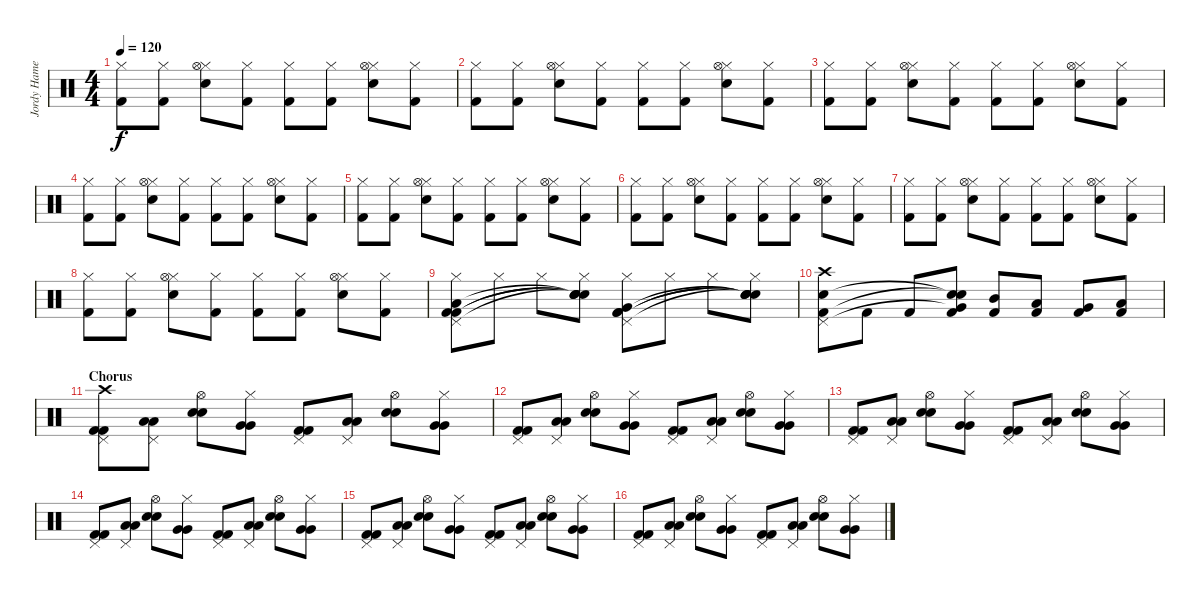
\track ("Jordy Hamer" "Jordy Hame") {instrument percussion}
\staff {score}
\articulation defaults
\ts (4 4)
\tempo 120
\clef neutral
\ks c
("Hi-Hat (closed)" "Kick (hit) 2").8{dy f} ("Hi-Hat (closed)" "Kick (hit) 2").8 ("Hi-Hat (closed)" "Electric Snare (hit)" "Hi-Hat (open)").8 ("Hi-Hat (closed)" "Kick (hit) 2").8 ("Hi-Hat (closed)" "Kick (hit) 2").8 ("Hi-Hat (closed)" "Kick (hit) 2").8 ("Hi-Hat (closed)" "Electric Snare (hit)" "Hi-Hat (open)").8 ("Hi-Hat (closed)" "Kick (hit) 2").8 |
("Hi-Hat (closed)" "Kick (hit) 2").8 ("Hi-Hat (closed)" "Kick (hit) 2").8 ("Hi-Hat (closed)" "Electric Snare (hit)" "Hi-Hat (open)").8 ("Hi-Hat (closed)" "Kick (hit) 2").8 ("Hi-Hat (closed)" "Kick (hit) 2").8 ("Hi-Hat (closed)" "Kick (hit) 2").8 ("Hi-Hat (closed)" "Electric Snare (hit)" "Hi-Hat (open)").8 ("Hi-Hat (closed)" "Kick (hit) 2").8 |
("Hi-Hat (closed)" "Kick (hit) 2").8 ("Hi-Hat (closed)" "Kick (hit) 2").8 ("Hi-Hat (closed)" "Electric Snare (hit)" "Hi-Hat (open)").8 ("Hi-Hat (closed)" "Kick (hit) 2").8 ("Hi-Hat (closed)" "Kick (hit) 2").8 ("Hi-Hat (closed)" "Kick (hit) 2").8 ("Hi-Hat (closed)" "Electric Snare (hit)" "Hi-Hat (open)").8 ("Hi-Hat (closed)" "Kick (hit) 2").8 |
("Hi-Hat (closed)" "Kick (hit) 2").8 ("Hi-Hat (closed)" "Kick (hit) 2").8 ("Hi-Hat (closed)" "Electric Snare (hit)" "Hi-Hat (open)").8 ("Hi-Hat (closed)" "Kick (hit) 2").8 ("Hi-Hat (closed)" "Kick (hit) 2").8 ("Hi-Hat (closed)" "Kick (hit) 2").8 ("Hi-Hat (closed)" "Electric Snare (hit)" "Hi-Hat (open)").8 ("Hi-Hat (closed)" "Kick (hit) 2").8 |
("Hi-Hat (closed)" "Kick (hit) 2").8 ("Hi-Hat (closed)" "Kick (hit) 2").8 ("Hi-Hat (closed)" "Electric Snare (hit)" "Hi-Hat (open)").8 ("Hi-Hat (closed)" "Kick (hit) 2").8 ("Hi-Hat (closed)" "Kick (hit) 2").8 ("Hi-Hat (closed)" "Kick (hit) 2").8 ("Hi-Hat (closed)" "Electric Snare (hit)" "Hi-Hat (open)").8 ("Hi-Hat (closed)" "Kick (hit) 2").8 |
("Hi-Hat (closed)" "Kick (hit) 2").8 ("Hi-Hat (closed)" "Kick (hit) 2").8 ("Hi-Hat (closed)" "Electric Snare (hit)" "Hi-Hat (open)").8 ("Hi-Hat (closed)" "Kick (hit) 2").8 ("Hi-Hat (closed)" "Kick (hit) 2").8 ("Hi-Hat (closed)" "Kick (hit) 2").8 ("Hi-Hat (closed)" "Electric Snare (hit)" "Hi-Hat (open)").8 ("Hi-Hat (closed)" "Kick (hit) 2").8 |
("Hi-Hat (closed)" "Kick (hit) 2").8 ("Hi-Hat (closed)" "Kick (hit) 2").8 ("Hi-Hat (closed)" "Electric Snare (hit)" "Hi-Hat (open)").8 ("Hi-Hat (closed)" "Kick (hit) 2").8 ("Hi-Hat (closed)" "Kick (hit) 2").8 ("Hi-Hat (closed)" "Kick (hit) 2").8 ("Hi-Hat (closed)" "Electric Snare (hit)" "Hi-Hat (open)").8 ("Hi-Hat (closed)" "Kick (hit) 2").8 |
("Hi-Hat (closed)" "Kick (hit) 2").8 ("Hi-Hat (closed)" "Kick (hit) 2").8 ("Hi-Hat (closed)" "Electric Snare (hit)" "Hi-Hat (open)").8 ("Hi-Hat (closed)" "Kick (hit) 2").8 ("Hi-Hat (closed)" "Kick (hit) 2").8 ("Hi-Hat (closed)" "Kick (hit) 2").8 ("Hi-Hat (closed)" "Electric Snare (hit)" "Hi-Hat (open)").8 ("Hi-Hat (closed)" "Kick (hit) 2").8 |
("Hi-Hat (closed)" "Pedal Hi-Hat (hit)" "Kick (hit) 2" "Kick (hit) 2" "Low Floor Tom (hit)").8 "Hi-Hat (closed)".8 "Hi-Hat (closed)".8 ("Hi-Hat (closed)" "Snare (hit)"{t} "Snare (hit)"{t} "Snare (hit)"{t} "Snare (hit)"{t}).8 ("Hi-Hat (closed)" "Pedal Hi-Hat (hit)" "Kick (hit) 2" "Kick (hit) 2" "Very Low Tom (hit)").8 "Hi-Hat (closed)".8 "Hi-Hat (closed)".8 ("Hi-Hat (closed)" "Snare (hit)"{t} "Snare (hit)"{t} "Snare (hit)"{t} "Snare (hit)"{t}).8 |
("Crash high (hit)" "Pedal Hi-Hat (hit)" "Electric Snare (hit)" "Kick (hit) 2").8 "Kick (hit) 2".8 "Kick (hit) 2".8 ("Kick (hit) 2" "Very Low Tom (hit)"{t} "Snare (hit)"{t} "Snare (hit)"{t}).8 ("Kick (hit) 2" "Mid Tom (hit)").8 ("Kick (hit) 2" "Low Tom (hit)").8 ("Kick (hit) 2" "Very Low Tom (hit)").8 ("Kick (hit) 2" "Low Floor Tom (hit)").8 |
\section ("" "Chorus")
("Crash high (hit)" "Pedal Hi-Hat (hit)" "Kick (hit) 2" "Kick (hit) 2").8 ("Pedal Hi-Hat (hit)" "Low Floor Tom (hit)" "Low Floor Tom (hit)").8 ("Hi-Hat (open)" "Electric Snare (hit)" "Electric Snare (hit)").8 ("Hi-Hat (closed)" "Very Low Tom (hit)" "Very Low Tom (hit)").8 ("Pedal Hi-Hat (hit)" "Kick (hit) 2" "Kick (hit) 2").8 ("Pedal Hi-Hat (hit)" "Low Floor Tom (hit)" "Low Floor Tom (hit)").8 ("Hi-Hat (open)" "Electric Snare (hit)" "Electric Snare (hit)").8 ("Hi-Hat (closed)" "Very Low Tom (hit)" "Very Low Tom (hit)").8 |
("Pedal Hi-Hat (hit)" "Kick (hit) 2" "Kick (hit) 2").8 ("Pedal Hi-Hat (hit)" "Low Floor Tom (hit)" "Low Floor Tom (hit)").8 ("Hi-Hat (open)" "Electric Snare (hit)" "Electric Snare (hit)").8 ("Hi-Hat (closed)" "Very Low Tom (hit)" "Very Low Tom (hit)").8 ("Pedal Hi-Hat (hit)" "Kick (hit) 2" "Kick (hit) 2").8 ("Pedal Hi-Hat (hit)" "Low Floor Tom (hit)" "Low Floor Tom (hit)").8 ("Hi-Hat (open)" "Electric Snare (hit)" "Electric Snare (hit)").8 ("Hi-Hat (closed)" "Very Low Tom (hit)" "Very Low Tom (hit)").8 |
("Pedal Hi-Hat (hit)" "Kick (hit) 2" "Kick (hit) 2").8 ("Pedal Hi-Hat (hit)" "Low Floor Tom (hit)" "Low Floor Tom (hit)").8 ("Hi-Hat (open)" "Electric Snare (hit)" "Electric Snare (hit)").8 ("Hi-Hat (closed)" "Very Low Tom (hit)" "Very Low Tom (hit)").8 ("Pedal Hi-Hat (hit)" "Kick (hit) 2" "Kick (hit) 2").8 ("Pedal Hi-Hat (hit)" "Low Floor Tom (hit)" "Low Floor Tom (hit)").8 ("Hi-Hat (open)" "Electric Snare (hit)" "Electric Snare (hit)").8 ("Hi-Hat (closed)" "Very Low Tom (hit)" "Very Low Tom (hit)").8 |
("Pedal Hi-Hat (hit)" "Kick (hit) 2" "Kick (hit) 2").8 ("Pedal Hi-Hat (hit)" "Low Floor Tom (hit)" "Low Floor Tom (hit)").8 ("Hi-Hat (open)" "Electric Snare (hit)" "Electric Snare (hit)").8 ("Hi-Hat (closed)" "Very Low Tom (hit)" "Very Low Tom (hit)").8 ("Pedal Hi-Hat (hit)" "Kick (hit) 2" "Kick (hit) 2").8 ("Pedal Hi-Hat (hit)" "Low Floor Tom (hit)" "Low Floor Tom (hit)").8 ("Hi-Hat (open)" "Electric Snare (hit)" "Electric Snare (hit)").8 ("Hi-Hat (closed)" "Very Low Tom (hit)" "Very Low Tom (hit)").8 |
("Pedal Hi-Hat (hit)" "Kick (hit) 2" "Kick (hit) 2").8 ("Pedal Hi-Hat (hit)" "Low Floor Tom (hit)" "Low Floor Tom (hit)").8 ("Hi-Hat (open)" "Electric Snare (hit)" "Electric Snare (hit)").8 ("Hi-Hat (closed)" "Very Low Tom (hit)" "Very Low Tom (hit)").8 ("Pedal Hi-Hat (hit)" "Kick (hit) 2" "Kick (hit) 2").8 ("Pedal Hi-Hat (hit)" "Low Floor Tom (hit)" "Low Floor Tom (hit)").8 ("Hi-Hat (open)" "Electric Snare (hit)" "Electric Snare (hit)").8 ("Hi-Hat (closed)" "Very Low Tom (hit)" "Very Low Tom (hit)").8 |
("Pedal Hi-Hat (hit)" "Kick (hit) 2" "Kick (hit) 2").8 ("Pedal Hi-Hat (hit)" "Low Floor Tom (hit)" "Low Floor Tom (hit)").8 ("Hi-Hat (open)" "Electric Snare (hit)" "Electric Snare (hit)").8 ("Hi-Hat (closed)" "Very Low Tom (hit)" "Very Low Tom (hit)").8 ("Pedal Hi-Hat (hit)" "Kick (hit) 2" "Kick (hit) 2").8 ("Pedal Hi-Hat (hit)" "Low Floor Tom (hit)" "Low Floor Tom (hit)").8 ("Hi-Hat (open)" "Electric Snare (hit)" "Electric Snare (hit)").8 ("Hi-Hat (closed)" "Very Low Tom (hit)" "Very Low Tom (hit)").8
